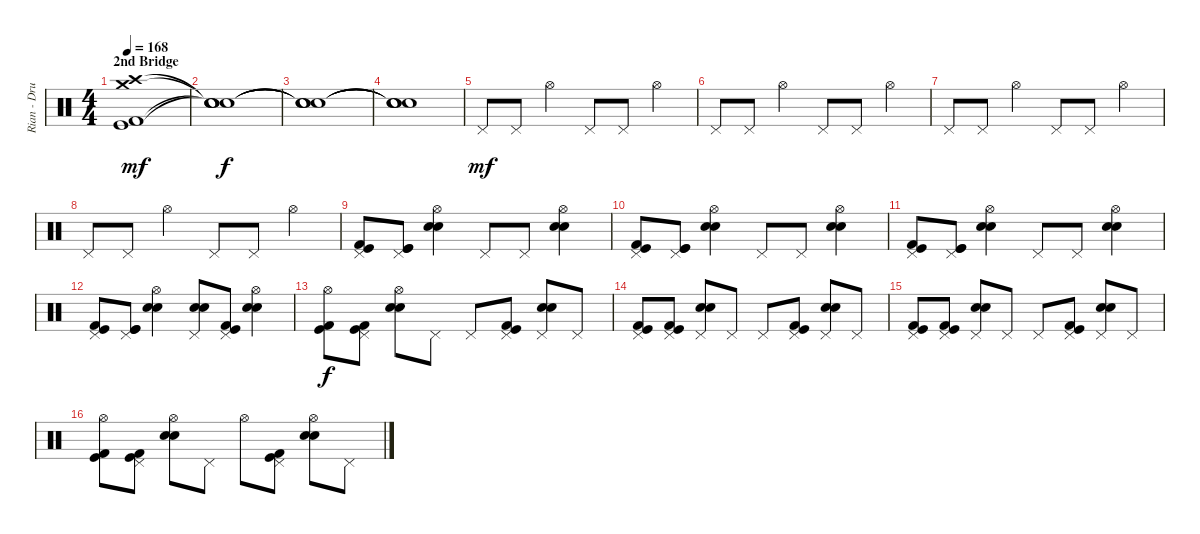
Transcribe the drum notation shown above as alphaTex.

\track ("Rian - Drums" "Rian - Dru") {instrument percussion}
\staff {score}
\articulation defaults
\ts (4 4)
\section ("" "2nd Bridge")
\tempo 168
\clef neutral
\ks c
("Kick (hit) 2" "Kick (hit)" "Crash high (hit)" "Crash medium (hit)").1{dy mf} |
("Snare (hit)"{t} "Snare (hit)"{t} "Snare (hit)"{t} "Snare (hit)"{t}).1{dy f} |
("Snare (hit)"{t} "Snare (hit)"{t} "Snare (hit)"{t} "Snare (hit)"{t}).1 |
("Snare (hit)"{t} "Snare (hit)"{t} "Snare (hit)"{t} "Snare (hit)"{t}).1 |
"Pedal Hi-Hat (hit)".8{dy mf} "Pedal Hi-Hat (hit)".8 "Hi-Hat (open)".4 "Pedal Hi-Hat (hit)".8 "Pedal Hi-Hat (hit)".8 "Hi-Hat (open)".4 |
"Pedal Hi-Hat (hit)".8 "Pedal Hi-Hat (hit)".8 "Hi-Hat (open)".4 "Pedal Hi-Hat (hit)".8 "Pedal Hi-Hat (hit)".8 "Hi-Hat (open)".4 |
"Pedal Hi-Hat (hit)".8 "Pedal Hi-Hat (hit)".8 "Hi-Hat (open)".4 "Pedal Hi-Hat (hit)".8 "Pedal Hi-Hat (hit)".8 "Hi-Hat (open)".4 |
"Pedal Hi-Hat (hit)".8 "Pedal Hi-Hat (hit)".8 "Hi-Hat (open)".4 "Pedal Hi-Hat (hit)".8 "Pedal Hi-Hat (hit)".8 "Hi-Hat (open)".4 |
("Kick (hit) 2" "Kick (hit)" "Pedal Hi-Hat (hit)").8 ("Kick (hit)" "Kick (hit)" "Pedal Hi-Hat (hit)").8 ("Electric Snare (hit)" "Electric Snare (hit)" "Hi-Hat (open)").4 "Pedal Hi-Hat (hit)".8 "Pedal Hi-Hat (hit)".8 ("Electric Snare (hit)" "Electric Snare (hit)" "Hi-Hat (open)").4 |
("Kick (hit) 2" "Kick (hit)" "Pedal Hi-Hat (hit)").8 ("Kick (hit)" "Kick (hit)" "Pedal Hi-Hat (hit)").8 ("Electric Snare (hit)" "Electric Snare (hit)" "Hi-Hat (open)").4 "Pedal Hi-Hat (hit)".8 "Pedal Hi-Hat (hit)".8 ("Electric Snare (hit)" "Electric Snare (hit)" "Hi-Hat (open)").4 |
("Kick (hit) 2" "Kick (hit)" "Pedal Hi-Hat (hit)").8 ("Kick (hit)" "Kick (hit)" "Pedal Hi-Hat (hit)").8 ("Electric Snare (hit)" "Electric Snare (hit)" "Hi-Hat (open)").4 "Pedal Hi-Hat (hit)".8 "Pedal Hi-Hat (hit)".8 ("Electric Snare (hit)" "Electric Snare (hit)" "Hi-Hat (open)").4 |
("Kick (hit) 2" "Kick (hit)" "Pedal Hi-Hat (hit)").8 ("Kick (hit)" "Kick (hit)" "Pedal Hi-Hat (hit)").8 ("Electric Snare (hit)" "Electric Snare (hit)" "Hi-Hat (open)").4 ("Electric Snare (hit)" "Electric Snare (hit)" "Pedal Hi-Hat (hit)").8 ("Kick (hit) 2" "Kick (hit)" "Pedal Hi-Hat (hit)").8 ("Electric Snare (hit)" "Electric Snare (hit)" "Hi-Hat (open)").4 |
("Kick (hit) 2" "Kick (hit)" "Hi-Hat (open)").8{dy f} ("Kick (hit) 2" "Kick (hit)" "Pedal Hi-Hat (hit)").8 ("Electric Snare (hit)" "Electric Snare (hit)" "Hi-Hat (open)").8 "Pedal Hi-Hat (hit)".8 "Pedal Hi-Hat (hit)".8 ("Kick (hit) 2" "Kick (hit)" "Pedal Hi-Hat (hit)").8 ("Electric Snare (hit)" "Electric Snare (hit)" "Pedal Hi-Hat (hit)").8 "Pedal Hi-Hat (hit)".8 |
("Kick (hit) 2" "Kick (hit)" "Pedal Hi-Hat (hit)").8 ("Kick (hit) 2" "Kick (hit)" "Pedal Hi-Hat (hit)").8 ("Electric Snare (hit)" "Electric Snare (hit)" "Pedal Hi-Hat (hit)").8 "Pedal Hi-Hat (hit)".8 "Pedal Hi-Hat (hit)".8 ("Kick (hit) 2" "Kick (hit)" "Pedal Hi-Hat (hit)").8 ("Electric Snare (hit)" "Electric Snare (hit)" "Pedal Hi-Hat (hit)").8 "Pedal Hi-Hat (hit)".8 |
("Kick (hit) 2" "Kick (hit)" "Pedal Hi-Hat (hit)").8 ("Kick (hit) 2" "Kick (hit)" "Pedal Hi-Hat (hit)").8 ("Electric Snare (hit)" "Electric Snare (hit)" "Pedal Hi-Hat (hit)").8 "Pedal Hi-Hat (hit)".8 "Pedal Hi-Hat (hit)".8 ("Kick (hit) 2" "Kick (hit)" "Pedal Hi-Hat (hit)").8 ("Electric Snare (hit)" "Electric Snare (hit)" "Pedal Hi-Hat (hit)").8 "Pedal Hi-Hat (hit)".8 |
("Kick (hit) 2" "Kick (hit)" "Hi-Hat (open)").8 ("Kick (hit) 2" "Kick (hit)" "Pedal Hi-Hat (hit)").8 ("Electric Snare (hit)" "Electric Snare (hit)" "Hi-Hat (open)").8 "Pedal Hi-Hat (hit)".8 "Hi-Hat (open)".8 ("Kick (hit) 2" "Kick (hit)" "Pedal Hi-Hat (hit)").8 ("Electric Snare (hit)" "Electric Snare (hit)" "Hi-Hat (open)").8 "Pedal Hi-Hat (hit)".8
